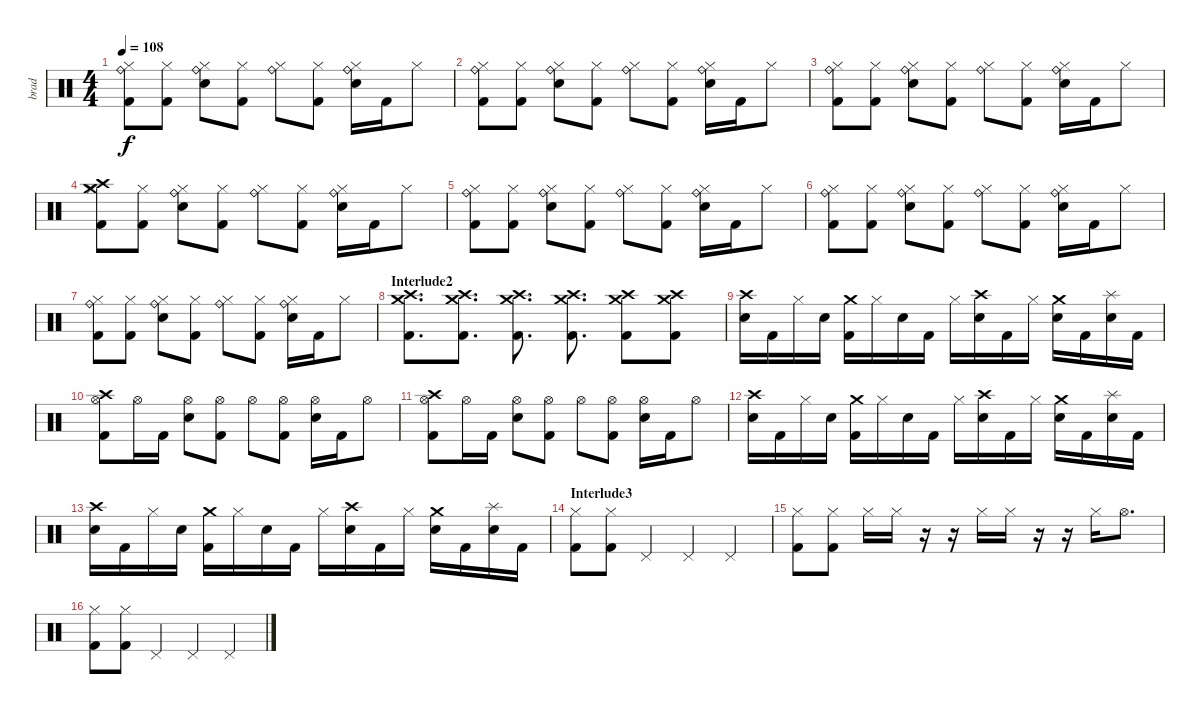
\track ("brad" "brad") {instrument percussion}
\staff {score}
\articulation defaults
\ts (4 4)
\tempo 108
\clef neutral
\ks c
("Ride (bell)" "Hi-Hat (closed)" "Kick (hit) 2").8{dy f} ("Hi-Hat (closed)" "Kick (hit) 2").8 ("Ride (bell)" "Hi-Hat (closed)" "Electric Snare (hit)").8 ("Hi-Hat (closed)" "Kick (hit) 2").8 ("Ride (bell)" "Hi-Hat (closed)").8 ("Hi-Hat (closed)" "Kick (hit) 2").8 ("Ride (bell)" "Hi-Hat (closed)" "Electric Snare (hit)").16 "Kick (hit) 2".16 "Hi-Hat (closed)".8 |
("Ride (bell)" "Hi-Hat (closed)" "Kick (hit) 2").8 ("Hi-Hat (closed)" "Kick (hit) 2").8 ("Ride (bell)" "Hi-Hat (closed)" "Electric Snare (hit)").8 ("Hi-Hat (closed)" "Kick (hit) 2").8 ("Ride (bell)" "Hi-Hat (closed)").8 ("Hi-Hat (closed)" "Kick (hit) 2").8 ("Ride (bell)" "Hi-Hat (closed)" "Electric Snare (hit)").16 "Kick (hit) 2".16 "Hi-Hat (closed)".8 |
("Ride (bell)" "Hi-Hat (closed)" "Kick (hit) 2").8 ("Hi-Hat (closed)" "Kick (hit) 2").8 ("Ride (bell)" "Hi-Hat (closed)" "Electric Snare (hit)").8 ("Hi-Hat (closed)" "Kick (hit) 2").8 ("Ride (bell)" "Hi-Hat (closed)").8 ("Hi-Hat (closed)" "Kick (hit) 2").8 ("Ride (bell)" "Hi-Hat (closed)" "Electric Snare (hit)").16 "Kick (hit) 2".16 "Hi-Hat (closed)".8 |
("Crash medium (hit)" "Crash high (hit)" "Hi-Hat (closed)" "Kick (hit) 2").8 ("Hi-Hat (closed)" "Kick (hit) 2").8 ("Ride (bell)" "Hi-Hat (closed)" "Electric Snare (hit)").8 ("Hi-Hat (closed)" "Kick (hit) 2").8 ("Ride (bell)" "Hi-Hat (closed)").8 ("Hi-Hat (closed)" "Kick (hit) 2").8 ("Ride (bell)" "Hi-Hat (closed)" "Electric Snare (hit)").16 "Kick (hit) 2".16 "Hi-Hat (closed)".8 |
("Ride (bell)" "Hi-Hat (closed)" "Kick (hit) 2").8 ("Hi-Hat (closed)" "Kick (hit) 2").8 ("Ride (bell)" "Hi-Hat (closed)" "Electric Snare (hit)").8 ("Hi-Hat (closed)" "Kick (hit) 2").8 ("Ride (bell)" "Hi-Hat (closed)").8 ("Hi-Hat (closed)" "Kick (hit) 2").8 ("Ride (bell)" "Hi-Hat (closed)" "Electric Snare (hit)").16 "Kick (hit) 2".16 "Hi-Hat (closed)".8 |
("Ride (bell)" "Hi-Hat (closed)" "Kick (hit) 2").8 ("Hi-Hat (closed)" "Kick (hit) 2").8 ("Ride (bell)" "Hi-Hat (closed)" "Electric Snare (hit)").8 ("Hi-Hat (closed)" "Kick (hit) 2").8 ("Ride (bell)" "Hi-Hat (closed)").8 ("Hi-Hat (closed)" "Kick (hit) 2").8 ("Ride (bell)" "Hi-Hat (closed)" "Electric Snare (hit)").16 "Kick (hit) 2".16 "Hi-Hat (closed)".8 |
("Ride (bell)" "Hi-Hat (closed)" "Kick (hit) 2").8 ("Hi-Hat (closed)" "Kick (hit) 2").8 ("Ride (bell)" "Hi-Hat (closed)" "Electric Snare (hit)").8 ("Hi-Hat (closed)" "Kick (hit) 2").8 ("Ride (bell)" "Hi-Hat (closed)").8 ("Hi-Hat (closed)" "Kick (hit) 2").8 ("Ride (bell)" "Hi-Hat (closed)" "Electric Snare (hit)").16 "Kick (hit) 2".16 "Hi-Hat (closed)".8 |
\section ("" "Interlude2")
("Crash medium (hit)" "Crash high (hit)" "Kick (hit) 2").8{d} ("Crash medium (hit)" "Crash high (hit)" "Kick (hit) 2").8{d} ("Crash medium (hit)" "Crash high (hit)" "Kick (hit) 2").8{d} ("Crash medium (hit)" "Crash high (hit)" "Kick (hit) 2").8{d} ("Crash medium (hit)" "Crash high (hit)" "Kick (hit) 2").8 ("Crash medium (hit)" "Crash high (hit)" "Kick (hit) 2").8 |
("Crash high (hit)" "Electric Snare (hit)").16 "Kick (hit) 2".16 "Hi-Hat (closed)".16 "Electric Snare (hit)".16 ("Crash medium (hit)" "Kick (hit) 2").16 "Hi-Hat (closed)".16 "Electric Snare (hit)".16 "Kick (hit) 2".16 "Hi-Hat (closed)".16 ("Crash high (hit)" "Electric Snare (hit)").16 "Kick (hit) 2".16 "Hi-Hat (closed)".16 ("Crash medium (hit)" "Electric Snare (hit)").16 "Kick (hit) 2".16 ("Splash (hit)" "Electric Snare (hit)").16 "Kick (hit) 2".16 |
("Crash high (hit)" "Hi-Hat (open)" "Kick (hit) 2").8 "Hi-Hat (open)".16 "Kick (hit) 2".16 ("Hi-Hat (open)" "Electric Snare (hit)").8 ("Hi-Hat (open)" "Kick (hit) 2").8 "Hi-Hat (open)".8 ("Hi-Hat (open)" "Kick (hit) 2").8 ("Hi-Hat (open)" "Electric Snare (hit)").16 "Kick (hit) 2".16 "Hi-Hat (open)".8 |
("Crash high (hit)" "Hi-Hat (open)" "Kick (hit) 2").8 "Hi-Hat (open)".16 "Kick (hit) 2".16 ("Hi-Hat (open)" "Electric Snare (hit)").8 ("Hi-Hat (open)" "Kick (hit) 2").8 "Hi-Hat (open)".8 ("Hi-Hat (open)" "Kick (hit) 2").8 ("Hi-Hat (open)" "Electric Snare (hit)").16 "Kick (hit) 2".16 "Hi-Hat (open)".8 |
("Crash high (hit)" "Electric Snare (hit)").16 "Kick (hit) 2".16 "Hi-Hat (closed)".16 "Electric Snare (hit)".16 ("Crash medium (hit)" "Kick (hit) 2").16 "Hi-Hat (closed)".16 "Electric Snare (hit)".16 "Kick (hit) 2".16 "Hi-Hat (closed)".16 ("Crash high (hit)" "Electric Snare (hit)").16 "Kick (hit) 2".16 "Hi-Hat (closed)".16 ("Crash medium (hit)" "Electric Snare (hit)").16 "Kick (hit) 2".16 ("Splash (hit)" "Electric Snare (hit)").16 "Kick (hit) 2".16 |
("Crash high (hit)" "Electric Snare (hit)").16 "Kick (hit) 2".16 "Hi-Hat (closed)".16 "Electric Snare (hit)".16 ("Crash medium (hit)" "Kick (hit) 2").16 "Hi-Hat (closed)".16 "Electric Snare (hit)".16 "Kick (hit) 2".16 "Hi-Hat (closed)".16 ("Crash high (hit)" "Electric Snare (hit)").16 "Kick (hit) 2".16 "Hi-Hat (closed)".16 ("Crash medium (hit)" "Electric Snare (hit)").16 "Kick (hit) 2".16 ("Splash (hit)" "Electric Snare (hit)").16 "Kick (hit) 2".16 |
\section ("" "Interlude3")
("Hi-Hat (closed)" "Kick (hit) 2").8 ("Hi-Hat (closed)" "Kick (hit) 2").8 "Pedal Hi-Hat (hit)".4 "Pedal Hi-Hat (hit)".4 "Pedal Hi-Hat (hit)".4 |
("Hi-Hat (closed)" "Kick (hit) 2").8 ("Hi-Hat (closed)" "Kick (hit) 2").8 "Hi-Hat (closed)".16 "Hi-Hat (closed)".16 r.16 r.16 "Hi-Hat (closed)".16 "Hi-Hat (closed)".16 r.16 r.16 "Hi-Hat (closed)".16 "Hi-Hat (open)".8{d} |
("Hi-Hat (closed)" "Kick (hit) 2").8 ("Hi-Hat (closed)" "Kick (hit) 2").8 "Pedal Hi-Hat (hit)".4 "Pedal Hi-Hat (hit)".4 "Pedal Hi-Hat (hit)".4
